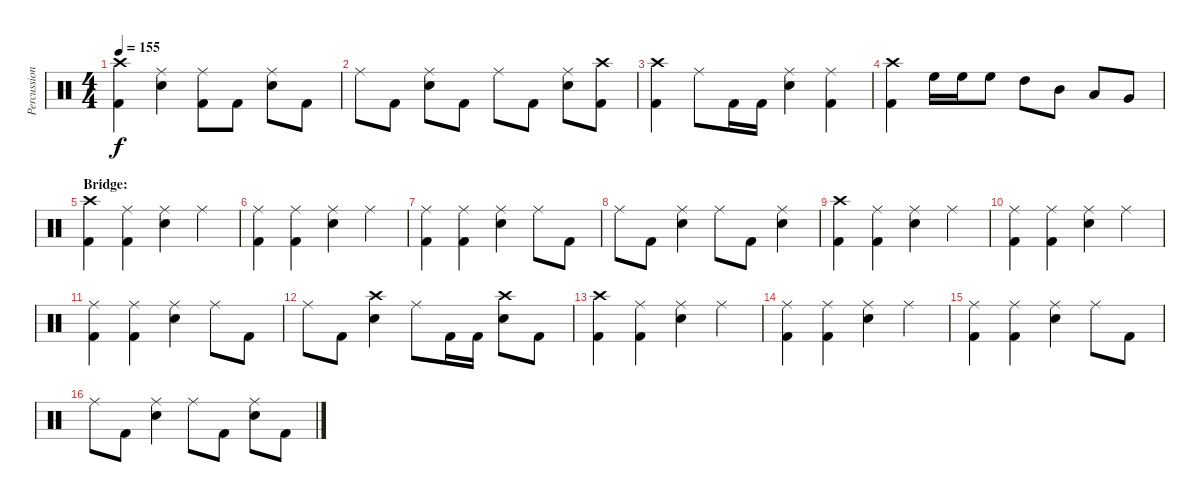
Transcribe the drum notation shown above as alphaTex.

\track ("Percussion" "Percussion") {instrument percussion}
\staff {score}
\articulation defaults
\ts (4 4)
\tempo 155
\clef neutral
\ks c
("Crash high (hit)" "Kick (hit) 2").4{dy f} ("Ride (middle)" "Electric Snare (hit)").4 ("Ride (middle)" "Kick (hit) 2").8 "Kick (hit) 2".8 ("Ride (middle)" "Electric Snare (hit)").8 "Kick (hit) 2".8 |
"Ride (middle)".8 "Kick (hit) 2".8 ("Ride (middle)" "Electric Snare (hit)").8 "Kick (hit) 2".8 "Ride (middle)".8 "Kick (hit) 2".8 ("Ride (middle)" "Electric Snare (hit)").8 ("Crash high (hit)" "Kick (hit) 2").8 |
("Crash high (hit)" "Kick (hit) 2").4 "Ride (middle)".8 "Kick (hit) 2".16 "Kick (hit) 2".16 ("Ride (middle)" "Electric Snare (hit)").4 ("Ride (middle)" "Kick (hit) 2").4 |
("Crash high (hit)" "Kick (hit) 2").4 "High Floor Tom (hit)".16 "High Floor Tom (hit)".16 "High Floor Tom (hit)".8 "High Tom (hit)".8 "Mid Tom (hit)".8 "Low Tom (hit)".8 "Very Low Tom (hit)".8 |
\section ("" "Bridge:")
("Crash high (hit)" "Kick (hit) 2").4 ("Ride (middle)" "Kick (hit) 2").4 ("Ride (middle)" "Electric Snare (hit)").4 "Ride (middle)".4 |
("Ride (middle)" "Kick (hit) 2").4 ("Ride (middle)" "Kick (hit) 2").4 ("Ride (middle)" "Electric Snare (hit)").4 "Ride (middle)".4 |
("Ride (middle)" "Kick (hit) 2").4 ("Ride (middle)" "Kick (hit) 2").4 ("Ride (middle)" "Electric Snare (hit)").4 "Ride (middle)".8 "Kick (hit) 2".8 |
"Ride (middle)".8 "Kick (hit) 2".8 ("Ride (middle)" "Electric Snare (hit)").4 "Ride (middle)".8 "Kick (hit) 2".8 ("Ride (middle)" "Electric Snare (hit)").4 |
("Crash high (hit)" "Kick (hit) 2").4 ("Ride (middle)" "Kick (hit) 2").4 ("Ride (middle)" "Electric Snare (hit)").4 "Ride (middle)".4 |
("Ride (middle)" "Kick (hit) 2").4 ("Ride (middle)" "Kick (hit) 2").4 ("Ride (middle)" "Electric Snare (hit)").4 "Ride (middle)".4 |
("Ride (middle)" "Kick (hit) 2").4 ("Ride (middle)" "Kick (hit) 2").4 ("Ride (middle)" "Electric Snare (hit)").4 "Ride (middle)".8 "Kick (hit) 2".8 |
"Ride (middle)".8 "Kick (hit) 2".8 ("Crash high (hit)" "Electric Snare (hit)").4 "Ride (middle)".8 "Kick (hit) 2".16 "Kick (hit) 2".16 ("Crash high (hit)" "Electric Snare (hit)").8 "Kick (hit) 2".8 |
("Crash high (hit)" "Kick (hit) 2").4 ("Ride (middle)" "Kick (hit) 2").4 ("Ride (middle)" "Electric Snare (hit)").4 "Ride (middle)".4 |
("Ride (middle)" "Kick (hit) 2").4 ("Ride (middle)" "Kick (hit) 2").4 ("Ride (middle)" "Electric Snare (hit)").4 "Ride (middle)".4 |
("Ride (middle)" "Kick (hit) 2").4 ("Ride (middle)" "Kick (hit) 2").4 ("Ride (middle)" "Electric Snare (hit)").4 "Ride (middle)".8 "Kick (hit) 2".8 |
"Ride (middle)".8 "Kick (hit) 2".8 ("Ride (middle)" "Electric Snare (hit)").4 "Ride (middle)".8 "Kick (hit) 2".8 ("Ride (middle)" "Electric Snare (hit)").8 "Kick (hit) 2".8
